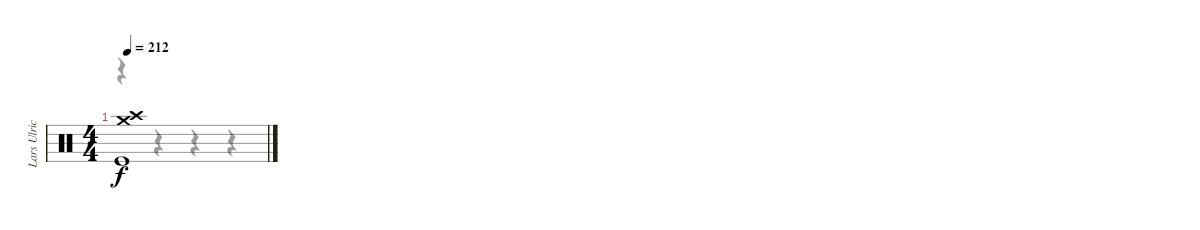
\track ("Lars Ulrich" "Lars Ulric") {instrument percussion}
\staff {score}
\articulation defaults
\voice
\ts (4 4)
\tempo 212
\clef neutral
\ks c
("Crash high (hit)"{t} "Crash medium (hit)"{t} "Kick (hit)"{t}).1{dy f}
\voice
\clef neutral
\ottava regular
\simile none
\ks c
r.4{dy f} r.4 r.4 r.4
